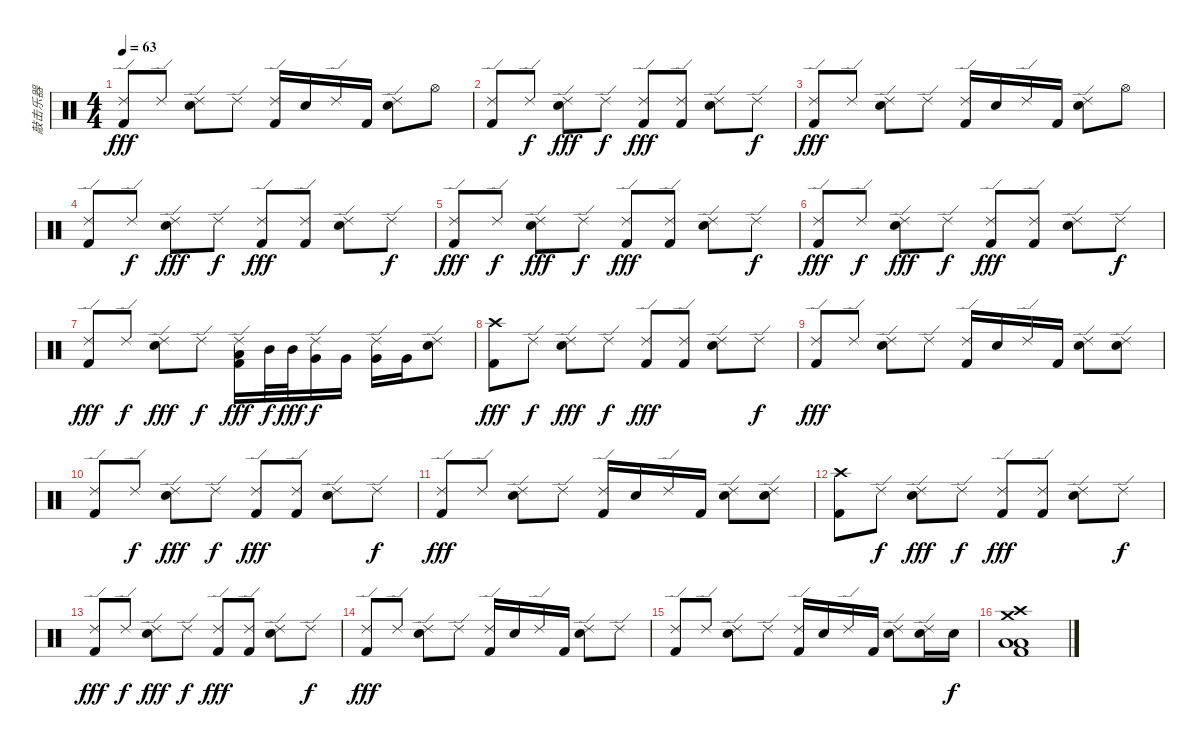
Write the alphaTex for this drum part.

\track ("敲击乐器" "敲击乐器") {instrument percussion}
\staff {score}
\articulation defaults
\ts (4 4)
\tempo 63
\clef neutral
\ks c
("Ride (edge) 2" "Kick (hit) 2").8{dy fff} "Ride (edge) 2".8 ("Ride (edge) 2" "Snare (hit) 2").8 "Ride (edge) 2".8 ("Ride (edge) 2" "Kick (hit) 2").16 "Snare (hit) 2".16 "Ride (edge) 2".16 "Kick (hit) 2".16 ("Ride (edge) 2" "Snare (hit) 2").8 "Hi-Hat (open)".8 |
("Ride (edge) 2" "Kick (hit) 2").8 "Ride (edge) 2".8{dy f} ("Ride (edge) 2" "Snare (hit) 2").8{dy fff} "Ride (edge) 2".8{dy f} ("Ride (edge) 2" "Kick (hit) 2").8{dy fff} ("Ride (edge) 2" "Kick (hit) 2").8 ("Ride (edge) 2" "Snare (hit) 2").8 "Ride (edge) 2".8{dy f} |
("Ride (edge) 2" "Kick (hit) 2").8{dy fff} "Ride (edge) 2".8 ("Ride (edge) 2" "Snare (hit) 2").8 "Ride (edge) 2".8 ("Ride (edge) 2" "Kick (hit) 2").16 "Snare (hit) 2".16 "Ride (edge) 2".16 "Kick (hit) 2".16 ("Ride (edge) 2" "Snare (hit) 2").8 "Hi-Hat (open)".8 |
("Ride (edge) 2" "Kick (hit) 2").8 "Ride (edge) 2".8{dy f} ("Ride (edge) 2" "Snare (hit) 2").8{dy fff} "Ride (edge) 2".8{dy f} ("Ride (edge) 2" "Kick (hit) 2").8{dy fff} ("Ride (edge) 2" "Kick (hit) 2").8 ("Ride (edge) 2" "Snare (hit) 2").8 "Ride (edge) 2".8{dy f} |
("Ride (edge) 2" "Kick (hit) 2").8{dy fff} "Ride (edge) 2".8{dy f} ("Ride (edge) 2" "Snare (hit) 2").8{dy fff} "Ride (edge) 2".8{dy f} ("Ride (edge) 2" "Kick (hit) 2").8{dy fff} ("Ride (edge) 2" "Kick (hit) 2").8 ("Ride (edge) 2" "Snare (hit) 2").8 "Ride (edge) 2".8{dy f} |
("Ride (edge) 2" "Kick (hit) 2").8{dy fff} "Ride (edge) 2".8{dy f} ("Ride (edge) 2" "Snare (hit) 2").8{dy fff} "Ride (edge) 2".8{dy f} ("Ride (edge) 2" "Kick (hit) 2").8{dy fff} ("Ride (edge) 2" "Kick (hit) 2").8 ("Ride (edge) 2" "Snare (hit) 2").8 "Ride (edge) 2".8{dy f} |
("Ride (edge) 2" "Kick (hit) 2").8{dy fff} "Ride (edge) 2".8{dy f} ("Ride (edge) 2" "Snare (hit) 2").8{dy fff} "Ride (edge) 2".8{dy f} ("Ride (edge) 2" "Low Tom (hit)" "Kick (hit) 2").16{dy fff} "Mid Tom (hit)".32{dy f} "Mid Tom (hit)".32{dy fff} ("Ride (edge) 2" "Very Low Tom (hit)").16{dy f} "Very Low Tom (hit)".16 ("Ride (edge) 2" "Very Low Tom (hit)").16 "Very Low Tom (hit)".16 ("Ride (edge) 2" "Snare (hit) 2").8 |
("Crash high (hit)" "Kick (hit) 2").8{dy fff} "Ride (edge) 2".8{dy f} ("Ride (edge) 2" "Snare (hit) 2").8{dy fff} "Ride (edge) 2".8{dy f} ("Ride (edge) 2" "Kick (hit) 2").8{dy fff} ("Ride (edge) 2" "Kick (hit) 2").8 ("Ride (edge) 2" "Snare (hit) 2").8 "Ride (edge) 2".8{dy f} |
("Ride (edge) 2" "Kick (hit) 2").8{dy fff} "Ride (edge) 2".8 ("Ride (edge) 2" "Snare (hit) 2").8 "Ride (edge) 2".8 ("Ride (edge) 2" "Kick (hit) 2").16 "Snare (hit) 2".16 "Ride (edge) 2".16 "Kick (hit) 2".16 ("Ride (edge) 2" "Snare (hit) 2").8 ("Ride (edge) 2" "Snare (hit) 2").8 |
("Ride (edge) 2" "Kick (hit) 2").8 "Ride (edge) 2".8{dy f} ("Ride (edge) 2" "Snare (hit) 2").8{dy fff} "Ride (edge) 2".8{dy f} ("Ride (edge) 2" "Kick (hit) 2").8{dy fff} ("Ride (edge) 2" "Kick (hit) 2").8 ("Ride (edge) 2" "Snare (hit) 2").8 "Ride (edge) 2".8{dy f} |
("Ride (edge) 2" "Kick (hit) 2").8{dy fff} "Ride (edge) 2".8 ("Ride (edge) 2" "Snare (hit) 2").8 "Ride (edge) 2".8 ("Ride (edge) 2" "Kick (hit) 2").16 "Snare (hit) 2".16 "Ride (edge) 2".16 "Kick (hit) 2".16 ("Ride (edge) 2" "Snare (hit) 2").8 ("Ride (edge) 2" "Snare (hit) 2").8 |
("Crash high (hit)" "Kick (hit) 2").8 "Ride (edge) 2".8{dy f} ("Ride (edge) 2" "Snare (hit) 2").8{dy fff} "Ride (edge) 2".8{dy f} ("Ride (edge) 2" "Kick (hit) 2").8{dy fff} ("Ride (edge) 2" "Kick (hit) 2").8 ("Ride (edge) 2" "Snare (hit) 2").8 "Ride (edge) 2".8{dy f} |
("Ride (edge) 2" "Kick (hit) 2").8{dy fff} "Ride (edge) 2".8{dy f} ("Ride (edge) 2" "Snare (hit) 2").8{dy fff} "Ride (edge) 2".8{dy f} ("Ride (edge) 2" "Kick (hit) 2").8{dy fff} ("Ride (edge) 2" "Kick (hit) 2").8 ("Ride (edge) 2" "Snare (hit) 2").8 "Ride (edge) 2".8{dy f} |
("Ride (edge) 2" "Kick (hit) 2").8{dy fff} "Ride (edge) 2".8 ("Ride (edge) 2" "Snare (hit) 2").8 "Ride (edge) 2".8 ("Ride (edge) 2" "Kick (hit) 2").16 "Snare (hit) 2".16 "Ride (edge) 2".16 "Kick (hit) 2".16 ("Ride (edge) 2" "Snare (hit) 2").8 "Ride (edge) 2".8 |
("Ride (edge) 2" "Kick (hit) 2").8 "Ride (edge) 2".8 ("Ride (edge) 2" "Snare (hit) 2").8 "Ride (edge) 2".8 ("Ride (edge) 2" "Kick (hit) 2").16 "Snare (hit) 2".16 "Ride (edge) 2".16 "Kick (hit) 2".16 ("Ride (edge) 2" "Snare (hit) 2").8 ("Ride (edge) 2" "Snare (hit) 2").16 "Snare (hit) 2".16{dy f} |
("Crash high (hit)" "Crash medium (hit)" "Low Tom (hit)" "Low Tom (hit)" "Kick (hit) 2").1
